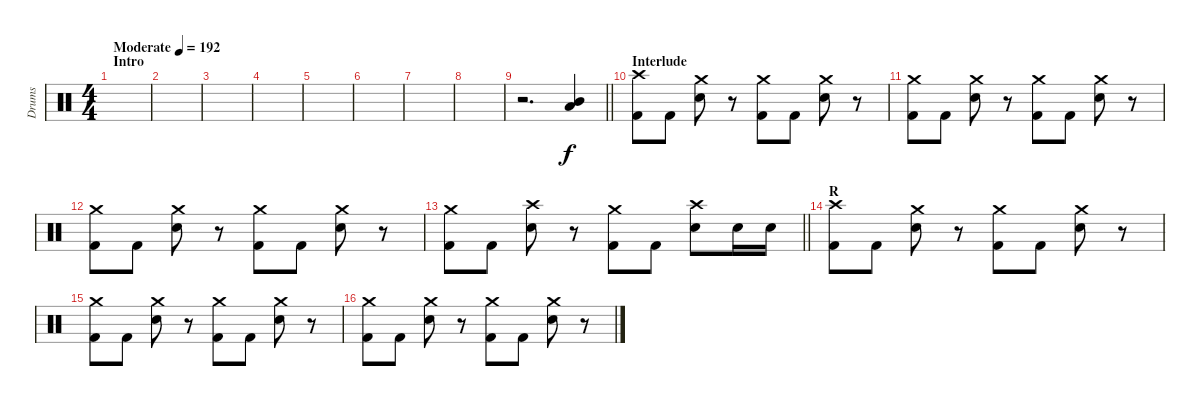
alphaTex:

\track ("Drums" "Drums") {instrument percussion}
\staff {score}
\articulation defaults
\ts (4 4)
\section ("" "Intro")
\tempo (192 "Moderate")
\clef neutral
\ks c
|
|
|
|
|
|
|
|
\barLineRight lightlight
r.2{d} ("Mid Tom (hit)" "Low Floor Tom (hit)").4 |
\section ("" "Interlude")
("Crash high (hit)" "Kick (hit) 2").8{dy f} "Kick (hit) 2".8 ("Crash medium (hit)" "Snare (hit) 2").8 r.8 ("Crash medium (hit)" "Kick (hit) 2").8 "Kick (hit) 2".8 ("Crash medium (hit)" "Snare (hit) 2").8 r.8 |
("Crash medium (hit)" "Kick (hit) 2").8 "Kick (hit) 2".8 ("Crash medium (hit)" "Snare (hit) 2").8 r.8 ("Crash medium (hit)" "Kick (hit) 2").8 "Kick (hit) 2".8 ("Crash medium (hit)" "Snare (hit) 2").8 r.8 |
("Crash medium (hit)" "Kick (hit) 2").8 "Kick (hit) 2".8 ("Crash medium (hit)" "Snare (hit) 2").8 r.8 ("Crash medium (hit)" "Kick (hit) 2").8 "Kick (hit) 2".8 ("Crash medium (hit)" "Snare (hit) 2").8 r.8 |
\barLineRight lightlight
("Crash medium (hit)" "Kick (hit) 2").8 "Kick (hit) 2".8 ("Crash high (hit)" "Snare (hit) 2").8 r.8 ("Crash medium (hit)" "Kick (hit) 2").8 "Kick (hit) 2".8 ("Crash high (hit)" "Snare (hit) 2").8 "Snare (hit) 2".16 "Snare (hit) 2".16 |
\section ("" "R")
("Crash high (hit)" "Kick (hit) 2").8 "Kick (hit) 2".8 ("Crash medium (hit)" "Snare (hit) 2").8 r.8 ("Crash medium (hit)" "Kick (hit) 2").8 "Kick (hit) 2".8 ("Crash medium (hit)" "Snare (hit) 2").8 r.8 |
("Crash medium (hit)" "Kick (hit) 2").8 "Kick (hit) 2".8 ("Crash medium (hit)" "Snare (hit) 2").8 r.8 ("Crash medium (hit)" "Kick (hit) 2").8 "Kick (hit) 2".8 ("Crash medium (hit)" "Snare (hit) 2").8 r.8 |
("Crash medium (hit)" "Kick (hit) 2").8 "Kick (hit) 2".8 ("Crash medium (hit)" "Snare (hit) 2").8 r.8 ("Crash medium (hit)" "Kick (hit) 2").8 "Kick (hit) 2".8 ("Crash medium (hit)" "Snare (hit) 2").8 r.8
